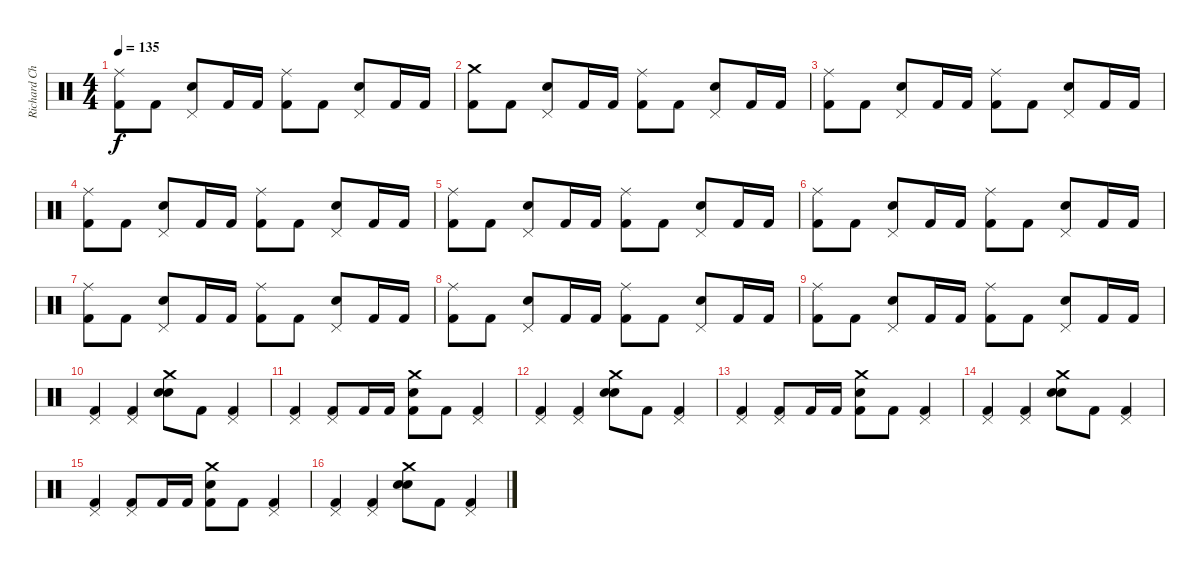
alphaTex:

\track ("Richard Christy" "Richard Ch") {instrument percussion}
\staff {score}
\articulation defaults
\ts (4 4)
\tempo 135
\clef neutral
\ks c
("Ride (middle)" "Kick (hit) 2").8{dy f} "Kick (hit) 2".8 ("Snare (hit) 2" "Pedal Hi-Hat (hit)").8 "Kick (hit) 2".16 "Kick (hit) 2".16 ("Ride (middle)" "Kick (hit) 2").8 "Kick (hit) 2".8 ("Snare (hit) 2" "Pedal Hi-Hat (hit)").8 "Kick (hit) 2".16 "Kick (hit) 2".16 |
("Crash medium (hit)" "Kick (hit) 2").8 "Kick (hit) 2".8 ("Snare (hit) 2" "Pedal Hi-Hat (hit)").8 "Kick (hit) 2".16 "Kick (hit) 2".16 ("Ride (middle)" "Kick (hit) 2").8 "Kick (hit) 2".8 ("Snare (hit) 2" "Pedal Hi-Hat (hit)").8 "Kick (hit) 2".16 "Kick (hit) 2".16 |
("Ride (middle)" "Kick (hit) 2").8 "Kick (hit) 2".8 ("Snare (hit) 2" "Pedal Hi-Hat (hit)").8 "Kick (hit) 2".16 "Kick (hit) 2".16 ("Ride (middle)" "Kick (hit) 2").8 "Kick (hit) 2".8 ("Snare (hit) 2" "Pedal Hi-Hat (hit)").8 "Kick (hit) 2".16 "Kick (hit) 2".16 |
("Ride (middle)" "Kick (hit) 2").8 "Kick (hit) 2".8 ("Snare (hit) 2" "Pedal Hi-Hat (hit)").8 "Kick (hit) 2".16 "Kick (hit) 2".16 ("Ride (middle)" "Kick (hit) 2").8 "Kick (hit) 2".8 ("Snare (hit) 2" "Pedal Hi-Hat (hit)").8 "Kick (hit) 2".16 "Kick (hit) 2".16 |
("Ride (middle)" "Kick (hit) 2").8 "Kick (hit) 2".8 ("Snare (hit) 2" "Pedal Hi-Hat (hit)").8 "Kick (hit) 2".16 "Kick (hit) 2".16 ("Ride (middle)" "Kick (hit) 2").8 "Kick (hit) 2".8 ("Snare (hit) 2" "Pedal Hi-Hat (hit)").8 "Kick (hit) 2".16 "Kick (hit) 2".16 |
("Ride (middle)" "Kick (hit) 2").8 "Kick (hit) 2".8 ("Snare (hit) 2" "Pedal Hi-Hat (hit)").8 "Kick (hit) 2".16 "Kick (hit) 2".16 ("Ride (middle)" "Kick (hit) 2").8 "Kick (hit) 2".8 ("Snare (hit) 2" "Pedal Hi-Hat (hit)").8 "Kick (hit) 2".16 "Kick (hit) 2".16 |
("Ride (middle)" "Kick (hit) 2").8 "Kick (hit) 2".8 ("Snare (hit) 2" "Pedal Hi-Hat (hit)").8 "Kick (hit) 2".16 "Kick (hit) 2".16 ("Ride (middle)" "Kick (hit) 2").8 "Kick (hit) 2".8 ("Snare (hit) 2" "Pedal Hi-Hat (hit)").8 "Kick (hit) 2".16 "Kick (hit) 2".16 |
("Ride (middle)" "Kick (hit) 2").8 "Kick (hit) 2".8 ("Snare (hit) 2" "Pedal Hi-Hat (hit)").8 "Kick (hit) 2".16 "Kick (hit) 2".16 ("Ride (middle)" "Kick (hit) 2").8 "Kick (hit) 2".8 ("Snare (hit) 2" "Pedal Hi-Hat (hit)").8 "Kick (hit) 2".16 "Kick (hit) 2".16 |
("Ride (middle)" "Kick (hit) 2").8 "Kick (hit) 2".8 ("Snare (hit) 2" "Pedal Hi-Hat (hit)").8 "Kick (hit) 2".16 "Kick (hit) 2".16 ("Ride (middle)" "Kick (hit) 2").8 "Kick (hit) 2".8 ("Snare (hit) 2" "Pedal Hi-Hat (hit)").8 "Kick (hit) 2".16 "Kick (hit) 2".16 |
("Pedal Hi-Hat (hit)" "Kick (hit) 2").4 ("Pedal Hi-Hat (hit)" "Kick (hit) 2").4 ("Snare (hit) 2" "Crash medium (hit)" "Snare (hit) 2").8 "Kick (hit) 2".8 ("Pedal Hi-Hat (hit)" "Kick (hit) 2").4 |
("Pedal Hi-Hat (hit)" "Kick (hit) 2").4 ("Pedal Hi-Hat (hit)" "Kick (hit) 2").8 "Kick (hit) 2".16 "Kick (hit) 2".16 ("Snare (hit) 2" "Crash medium (hit)" "Kick (hit) 2").8 "Kick (hit) 2".8 ("Pedal Hi-Hat (hit)" "Kick (hit) 2").4 |
("Pedal Hi-Hat (hit)" "Kick (hit) 2").4 ("Pedal Hi-Hat (hit)" "Kick (hit) 2").4 ("Snare (hit) 2" "Crash medium (hit)" "Snare (hit) 2").8 "Kick (hit) 2".8 ("Pedal Hi-Hat (hit)" "Kick (hit) 2").4 |
("Pedal Hi-Hat (hit)" "Kick (hit) 2").4 ("Pedal Hi-Hat (hit)" "Kick (hit) 2").8 "Kick (hit) 2".16 "Kick (hit) 2".16 ("Snare (hit) 2" "Crash medium (hit)" "Kick (hit) 2").8 "Kick (hit) 2".8 ("Pedal Hi-Hat (hit)" "Kick (hit) 2").4 |
("Pedal Hi-Hat (hit)" "Kick (hit) 2").4 ("Pedal Hi-Hat (hit)" "Kick (hit) 2").4 ("Snare (hit) 2" "Crash medium (hit)" "Snare (hit) 2").8 "Kick (hit) 2".8 ("Pedal Hi-Hat (hit)" "Kick (hit) 2").4 |
("Pedal Hi-Hat (hit)" "Kick (hit) 2").4 ("Pedal Hi-Hat (hit)" "Kick (hit) 2").8 "Kick (hit) 2".16 "Kick (hit) 2".16 ("Snare (hit) 2" "Crash medium (hit)" "Kick (hit) 2").8 "Kick (hit) 2".8 ("Pedal Hi-Hat (hit)" "Kick (hit) 2").4 |
("Pedal Hi-Hat (hit)" "Kick (hit) 2").4 ("Pedal Hi-Hat (hit)" "Kick (hit) 2").4 ("Snare (hit) 2" "Crash medium (hit)" "Snare (hit) 2").8 "Kick (hit) 2".8 ("Pedal Hi-Hat (hit)" "Kick (hit) 2").4
